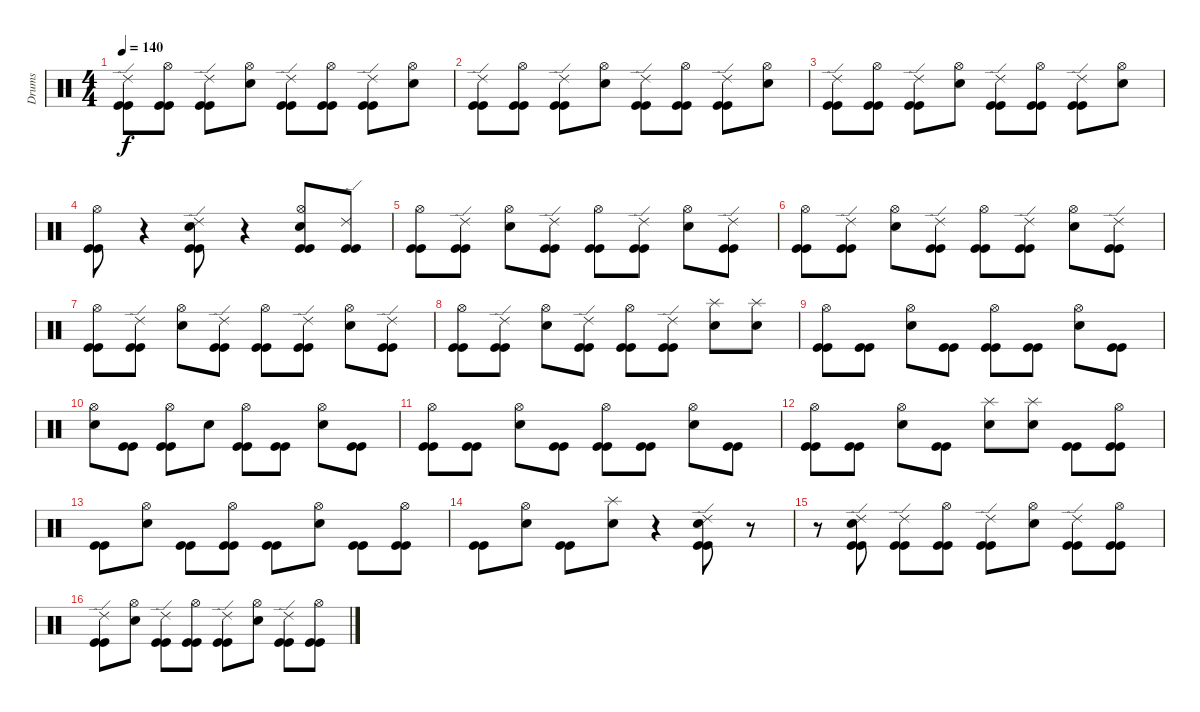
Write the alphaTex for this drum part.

\track ("Drums" "Drums") {instrument percussion}
\staff {score}
\articulation defaults
\ts (4 4)
\tempo 140
\clef neutral
\ks c
("Ride (edge) 2" "Kick (hit)" "Kick (hit)").8{dy f} ("Hi-Hat (open)" "Kick (hit)" "Kick (hit)").8 ("Ride (edge) 2" "Kick (hit)" "Kick (hit)").8 ("Hi-Hat (open)" "Electric Snare (hit)").8 ("Ride (edge) 2" "Kick (hit)" "Kick (hit)").8 ("Hi-Hat (open)" "Kick (hit)" "Kick (hit)").8 ("Ride (edge) 2" "Kick (hit)" "Kick (hit)").8 ("Hi-Hat (open)" "Electric Snare (hit)").8 |
("Ride (edge) 2" "Kick (hit)" "Kick (hit)").8 ("Hi-Hat (open)" "Kick (hit)" "Kick (hit)").8 ("Ride (edge) 2" "Kick (hit)" "Kick (hit)").8 ("Hi-Hat (open)" "Electric Snare (hit)").8 ("Ride (edge) 2" "Kick (hit)" "Kick (hit)").8 ("Hi-Hat (open)" "Kick (hit)" "Kick (hit)").8 ("Ride (edge) 2" "Kick (hit)" "Kick (hit)").8 ("Hi-Hat (open)" "Electric Snare (hit)").8 |
("Ride (edge) 2" "Kick (hit)" "Kick (hit)").8 ("Hi-Hat (open)" "Kick (hit)" "Kick (hit)").8 ("Ride (edge) 2" "Kick (hit)" "Kick (hit)").8 ("Hi-Hat (open)" "Electric Snare (hit)").8 ("Ride (edge) 2" "Kick (hit)" "Kick (hit)").8 ("Hi-Hat (open)" "Kick (hit)" "Kick (hit)").8 ("Ride (edge) 2" "Kick (hit)" "Kick (hit)").8 ("Hi-Hat (open)" "Electric Snare (hit)").8 |
("Hi-Hat (open)" "Kick (hit)" "Kick (hit)").8 r.4 ("Ride (edge) 2" "Electric Snare (hit)" "Kick (hit)" "Kick (hit)").8 r.4 ("Hi-Hat (open)" "Electric Snare (hit)" "Kick (hit)" "Kick (hit)").8 ("Ride (edge) 2" "Kick (hit)" "Kick (hit)").8 |
("Hi-Hat (open)" "Kick (hit)" "Kick (hit)").8 ("Ride (edge) 2" "Kick (hit)" "Kick (hit)").8 ("Hi-Hat (open)" "Electric Snare (hit)").8 ("Ride (edge) 2" "Kick (hit)" "Kick (hit)").8 ("Hi-Hat (open)" "Kick (hit)" "Kick (hit)").8 ("Ride (edge) 2" "Kick (hit)" "Kick (hit)").8 ("Hi-Hat (open)" "Electric Snare (hit)").8 ("Ride (edge) 2" "Kick (hit)" "Kick (hit)").8 |
("Hi-Hat (open)" "Kick (hit)" "Kick (hit)").8 ("Ride (edge) 2" "Kick (hit)" "Kick (hit)").8 ("Hi-Hat (open)" "Electric Snare (hit)").8 ("Ride (edge) 2" "Kick (hit)" "Kick (hit)").8 ("Hi-Hat (open)" "Kick (hit)" "Kick (hit)").8 ("Ride (edge) 2" "Kick (hit)" "Kick (hit)").8 ("Hi-Hat (open)" "Electric Snare (hit)").8 ("Ride (edge) 2" "Kick (hit)" "Kick (hit)").8 |
("Hi-Hat (open)" "Kick (hit)" "Kick (hit)").8 ("Ride (edge) 2" "Kick (hit)" "Kick (hit)").8 ("Hi-Hat (open)" "Electric Snare (hit)").8 ("Ride (edge) 2" "Kick (hit)" "Kick (hit)").8 ("Hi-Hat (open)" "Kick (hit)" "Kick (hit)").8 ("Ride (edge) 2" "Kick (hit)" "Kick (hit)").8 ("Hi-Hat (open)" "Electric Snare (hit)").8 ("Ride (edge) 2" "Kick (hit)" "Kick (hit)").8 |
("Hi-Hat (open)" "Kick (hit)" "Kick (hit)").8 ("Ride (edge) 2" "Kick (hit)" "Kick (hit)").8 ("Hi-Hat (open)" "Electric Snare (hit)").8 ("Ride (edge) 2" "Kick (hit)" "Kick (hit)").8 ("Hi-Hat (open)" "Kick (hit)" "Kick (hit)").8 ("Ride (edge) 2" "Kick (hit)" "Kick (hit)").8 ("Splash (hit)" "Electric Snare (hit)").8 ("Splash (hit)" "Electric Snare (hit)").8 |
("Hi-Hat (open)" "Kick (hit)" "Kick (hit)").8 ("Kick (hit)" "Kick (hit)").8 ("Hi-Hat (open)" "Electric Snare (hit)").8 ("Kick (hit)" "Kick (hit)").8 ("Hi-Hat (open)" "Kick (hit)" "Kick (hit)").8 ("Kick (hit)" "Kick (hit)").8 ("Hi-Hat (open)" "Electric Snare (hit)").8 ("Kick (hit)" "Kick (hit)").8 |
("Hi-Hat (open)" "Electric Snare (hit)").8 ("Kick (hit)" "Kick (hit)").8 ("Hi-Hat (open)" "Kick (hit)" "Kick (hit)").8 "Electric Snare (hit)".8 ("Hi-Hat (open)" "Kick (hit)" "Kick (hit)").8 ("Kick (hit)" "Kick (hit)").8 ("Hi-Hat (open)" "Electric Snare (hit)").8 ("Kick (hit)" "Kick (hit)").8 |
("Hi-Hat (open)" "Kick (hit)" "Kick (hit)").8 ("Kick (hit)" "Kick (hit)").8 ("Hi-Hat (open)" "Electric Snare (hit)").8 ("Kick (hit)" "Kick (hit)").8 ("Hi-Hat (open)" "Kick (hit)" "Kick (hit)").8 ("Kick (hit)" "Kick (hit)").8 ("Hi-Hat (open)" "Electric Snare (hit)").8 ("Kick (hit)" "Kick (hit)").8 |
("Hi-Hat (open)" "Kick (hit)" "Kick (hit)").8 ("Kick (hit)" "Kick (hit)").8 ("Hi-Hat (open)" "Electric Snare (hit)").8 ("Kick (hit)" "Kick (hit)").8 ("Splash (hit)" "Electric Snare (hit)").8 ("Splash (hit)" "Electric Snare (hit)").8 ("Kick (hit)" "Kick (hit)").8 ("Hi-Hat (open)" "Kick (hit)" "Kick (hit)").8 |
("Kick (hit)" "Kick (hit)").8 ("Hi-Hat (open)" "Electric Snare (hit)").8 ("Kick (hit)" "Kick (hit)").8 ("Hi-Hat (open)" "Kick (hit)" "Kick (hit)").8 ("Kick (hit)" "Kick (hit)").8 ("Hi-Hat (open)" "Electric Snare (hit)").8 ("Kick (hit)" "Kick (hit)").8 ("Hi-Hat (open)" "Kick (hit)" "Kick (hit)").8 |
("Kick (hit)" "Kick (hit)").8 ("Hi-Hat (open)" "Electric Snare (hit)").8 ("Kick (hit)" "Kick (hit)").8 ("Splash (hit)" "Electric Snare (hit)").8 r.4 ("Ride (edge) 2" "Electric Snare (hit)" "Kick (hit)" "Kick (hit)").8 r.8 |
r.8 ("Ride (edge) 2" "Electric Snare (hit)" "Kick (hit)" "Kick (hit)").8 ("Ride (edge) 2" "Kick (hit)" "Kick (hit)").8 ("Hi-Hat (open)" "Kick (hit)" "Kick (hit)").8 ("Ride (edge) 2" "Kick (hit)" "Kick (hit)").8 ("Hi-Hat (open)" "Electric Snare (hit)").8 ("Ride (edge) 2" "Kick (hit)" "Kick (hit)").8 ("Hi-Hat (open)" "Kick (hit)" "Kick (hit)").8 |
("Ride (edge) 2" "Kick (hit)" "Kick (hit)").8 ("Hi-Hat (open)" "Electric Snare (hit)").8 ("Ride (edge) 2" "Kick (hit)" "Kick (hit)").8 ("Hi-Hat (open)" "Kick (hit)" "Kick (hit)").8 ("Ride (edge) 2" "Kick (hit)" "Kick (hit)").8 ("Hi-Hat (open)" "Electric Snare (hit)").8 ("Ride (edge) 2" "Kick (hit)" "Kick (hit)").8 ("Hi-Hat (open)" "Kick (hit)" "Kick (hit)").8
